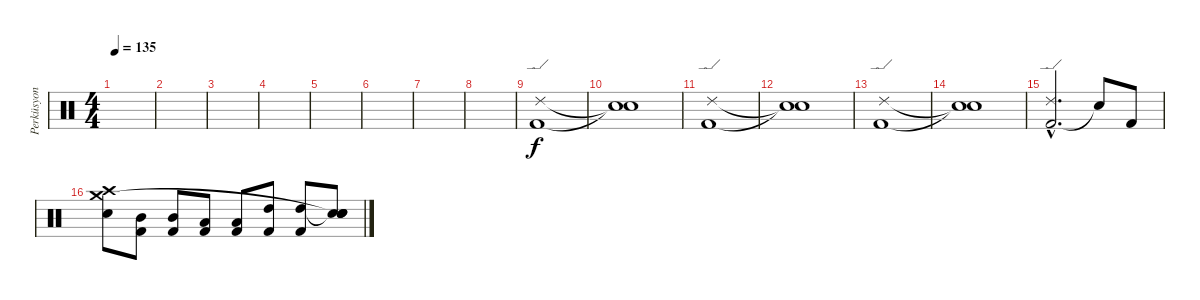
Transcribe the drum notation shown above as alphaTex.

\track ("Perküsyon" "Perküsyon") {instrument percussion}
\staff {score}
\articulation defaults
\ts (4 4)
\tempo 135
\clef neutral
\ks c
|
|
|
|
|
|
|
|
("Kick (hit) 2" "Ride (edge) 2").1 |
("Snare (hit)"{t} "Snare (hit)"{t}).1 |
("Kick (hit) 2" "Ride (edge) 2").1 |
("Snare (hit)"{t} "Snare (hit)"{t}).1 |
("Kick (hit) 2" "Ride (edge) 2").1 |
("Snare (hit)"{t} "Snare (hit)"{t}).1 |
("Kick (hit) 2"{hac} "Ride (edge) 2"{hac}).2{d} "Snare (hit)"{t}.8 "Kick (hit) 2".8 |
("Snare (hit) 2" "Crash high (hit)" "Crash medium (hit)").8 ("Kick (hit) 2" "Mid Tom (hit)").8 ("Kick (hit) 2" "Mid Tom (hit)").8 ("Kick (hit) 2" "Low Tom (hit)").8 ("Kick (hit) 2" "Low Tom (hit)").8 ("Kick (hit) 2" "High Tom (hit)").8 ("Kick (hit) 2" "High Tom (hit)").8 ("Snare (hit) 2" "Snare (hit)"{t} "Snare (hit)"{t} "Snare (hit)").8
